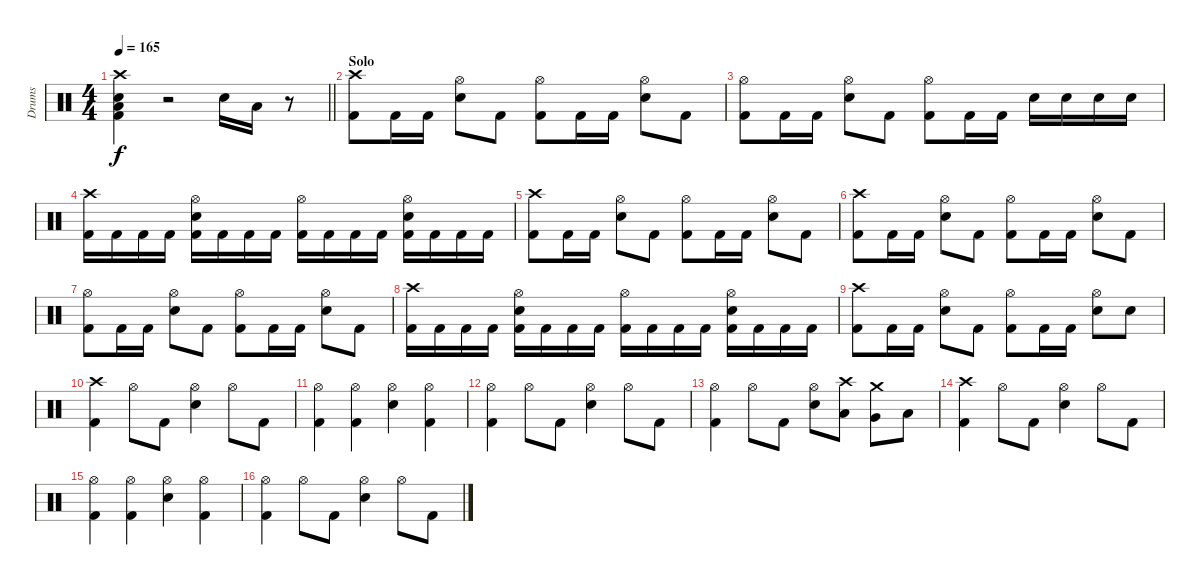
\track ("Drums" "Drums") {instrument percussion}
\staff {score}
\articulation defaults
\ts (4 4)
\tempo 165
\clef neutral
\barLineRight lightlight
\ks c
("Crash high (hit)" "Snare (hit) 2" "Low Floor Tom (hit)" "Kick (hit) 2").4{dy f} r.2 "Snare (hit) 2".16 "Low Tom (hit)".16 r.8 |
\section ("" "Solo")
("Crash high (hit)" "Kick (hit) 2").8 "Kick (hit) 2".16 "Kick (hit) 2".16 ("Hi-Hat (open)" "Snare (hit) 2").8 "Kick (hit) 2".8 ("Hi-Hat (open)" "Kick (hit) 2").8 "Kick (hit) 2".16 "Kick (hit) 2".16 ("Hi-Hat (open)" "Snare (hit) 2").8 "Kick (hit) 2".8 |
("Hi-Hat (open)" "Kick (hit) 2").8 "Kick (hit) 2".16 "Kick (hit) 2".16 ("Hi-Hat (open)" "Snare (hit) 2").8 "Kick (hit) 2".8 ("Hi-Hat (open)" "Kick (hit) 2").8 "Kick (hit) 2".16 "Kick (hit) 2".16 "Snare (hit) 2".16 "Snare (hit) 2".16 "Snare (hit) 2".16 "Snare (hit) 2".16 |
("Crash high (hit)" "Kick (hit) 2").16 "Kick (hit) 2".16 "Kick (hit) 2".16 "Kick (hit) 2".16 ("Hi-Hat (open)" "Snare (hit) 2" "Kick (hit) 2").16 "Kick (hit) 2".16 "Kick (hit) 2".16 "Kick (hit) 2".16 ("Hi-Hat (open)" "Kick (hit) 2").16 "Kick (hit) 2".16 "Kick (hit) 2".16 "Kick (hit) 2".16 ("Hi-Hat (open)" "Snare (hit) 2" "Kick (hit) 2").16 "Kick (hit) 2".16 "Kick (hit) 2".16 "Kick (hit) 2".16 |
("Crash high (hit)" "Kick (hit) 2").8 "Kick (hit) 2".16 "Kick (hit) 2".16 ("Hi-Hat (open)" "Snare (hit) 2").8 "Kick (hit) 2".8 ("Hi-Hat (open)" "Kick (hit) 2").8 "Kick (hit) 2".16 "Kick (hit) 2".16 ("Hi-Hat (open)" "Snare (hit) 2").8 "Kick (hit) 2".8 |
("Crash high (hit)" "Kick (hit) 2").8 "Kick (hit) 2".16 "Kick (hit) 2".16 ("Hi-Hat (open)" "Snare (hit) 2").8 "Kick (hit) 2".8 ("Hi-Hat (open)" "Kick (hit) 2").8 "Kick (hit) 2".16 "Kick (hit) 2".16 ("Hi-Hat (open)" "Snare (hit) 2").8 "Kick (hit) 2".8 |
("Hi-Hat (open)" "Kick (hit) 2").8 "Kick (hit) 2".16 "Kick (hit) 2".16 ("Hi-Hat (open)" "Snare (hit) 2").8 "Kick (hit) 2".8 ("Hi-Hat (open)" "Kick (hit) 2").8 "Kick (hit) 2".16 "Kick (hit) 2".16 ("Hi-Hat (open)" "Snare (hit) 2").8 "Kick (hit) 2".8 |
("Crash high (hit)" "Kick (hit) 2").16 "Kick (hit) 2".16 "Kick (hit) 2".16 "Kick (hit) 2".16 ("Hi-Hat (open)" "Snare (hit) 2" "Kick (hit) 2").16 "Kick (hit) 2".16 "Kick (hit) 2".16 "Kick (hit) 2".16 ("Hi-Hat (open)" "Kick (hit) 2").16 "Kick (hit) 2".16 "Kick (hit) 2".16 "Kick (hit) 2".16 ("Hi-Hat (open)" "Snare (hit) 2" "Kick (hit) 2").16 "Kick (hit) 2".16 "Kick (hit) 2".16 "Kick (hit) 2".16 |
("Crash high (hit)" "Kick (hit) 2").8 "Kick (hit) 2".16 "Kick (hit) 2".16 ("Hi-Hat (open)" "Snare (hit) 2").8 "Kick (hit) 2".8 ("Hi-Hat (open)" "Kick (hit) 2").8 "Kick (hit) 2".16 "Kick (hit) 2".16 ("Hi-Hat (open)" "Snare (hit) 2").8 "Snare (hit) 2".8 |
("Crash high (hit)" "Kick (hit) 2").4 "Hi-Hat (open)".8 "Kick (hit) 2".8 ("Hi-Hat (open)" "Snare (hit) 2").4 "Hi-Hat (open)".8 "Kick (hit) 2".8 |
("Hi-Hat (open)" "Kick (hit) 2").4 ("Hi-Hat (open)" "Kick (hit) 2").4 ("Hi-Hat (open)" "Snare (hit) 2").4 ("Hi-Hat (open)" "Kick (hit) 2").4 |
("Hi-Hat (open)" "Kick (hit) 2").4 "Hi-Hat (open)".8 "Kick (hit) 2".8 ("Hi-Hat (open)" "Snare (hit) 2").4 "Hi-Hat (open)".8 "Kick (hit) 2".8 |
("Hi-Hat (open)" "Kick (hit) 2").4 "Hi-Hat (open)".8 "Kick (hit) 2".8 ("Hi-Hat (open)" "Snare (hit) 2").8 ("Crash high (hit)" "Low Tom (hit)").8 ("Crash medium (hit)" "Very Low Tom (hit)").8 "Low Floor Tom (hit)".8 |
("Crash high (hit)" "Kick (hit) 2").4 "Hi-Hat (open)".8 "Kick (hit) 2".8 ("Hi-Hat (open)" "Snare (hit) 2").4 "Hi-Hat (open)".8 "Kick (hit) 2".8 |
("Hi-Hat (open)" "Kick (hit) 2").4 ("Hi-Hat (open)" "Kick (hit) 2").4 ("Hi-Hat (open)" "Snare (hit) 2").4 ("Hi-Hat (open)" "Kick (hit) 2").4 |
("Hi-Hat (open)" "Kick (hit) 2").4 "Hi-Hat (open)".8 "Kick (hit) 2".8 ("Hi-Hat (open)" "Snare (hit) 2").4 "Hi-Hat (open)".8 "Kick (hit) 2".8
